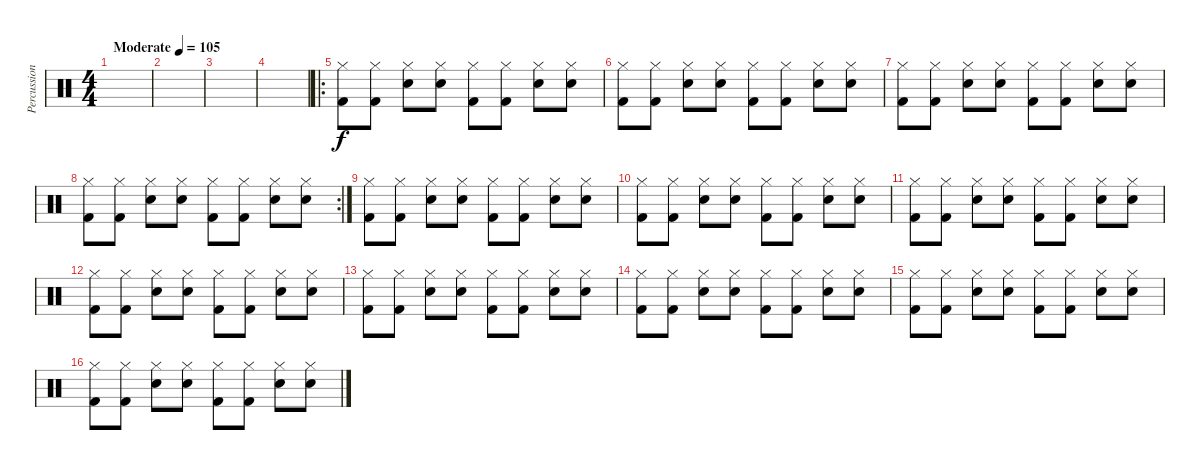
\track ("Percussion" "Percussion") {instrument percussion}
\staff {score}
\articulation defaults
\ts (4 4)
\tempo (105 "Moderate")
\clef neutral
\ks c
|
|
|
|
\ro
("Kick (hit) 2" "Hi-Hat (closed)").8 ("Kick (hit) 2" "Hi-Hat (closed)").8 ("Snare (hit) 2" "Hi-Hat (closed)").8 ("Snare (hit) 2" "Hi-Hat (closed)").8 ("Kick (hit) 2" "Hi-Hat (closed)").8 ("Kick (hit) 2" "Hi-Hat (closed)").8 ("Snare (hit) 2" "Hi-Hat (closed)").8 ("Snare (hit) 2" "Hi-Hat (closed)").8 |
("Kick (hit) 2" "Hi-Hat (closed)").8 ("Kick (hit) 2" "Hi-Hat (closed)").8 ("Snare (hit) 2" "Hi-Hat (closed)").8 ("Snare (hit) 2" "Hi-Hat (closed)").8 ("Kick (hit) 2" "Hi-Hat (closed)").8 ("Kick (hit) 2" "Hi-Hat (closed)").8 ("Snare (hit) 2" "Hi-Hat (closed)").8 ("Snare (hit) 2" "Hi-Hat (closed)").8 |
("Kick (hit) 2" "Hi-Hat (closed)").8 ("Kick (hit) 2" "Hi-Hat (closed)").8 ("Snare (hit) 2" "Hi-Hat (closed)").8 ("Snare (hit) 2" "Hi-Hat (closed)").8 ("Kick (hit) 2" "Hi-Hat (closed)").8 ("Kick (hit) 2" "Hi-Hat (closed)").8 ("Snare (hit) 2" "Hi-Hat (closed)").8 ("Snare (hit) 2" "Hi-Hat (closed)").8 |
\rc 2
("Kick (hit) 2" "Hi-Hat (closed)").8 ("Kick (hit) 2" "Hi-Hat (closed)").8 ("Snare (hit) 2" "Hi-Hat (closed)").8 ("Snare (hit) 2" "Hi-Hat (closed)").8 ("Kick (hit) 2" "Hi-Hat (closed)").8 ("Kick (hit) 2" "Hi-Hat (closed)").8 ("Snare (hit) 2" "Hi-Hat (closed)").8 ("Snare (hit) 2" "Hi-Hat (closed)").8 |
("Kick (hit) 2" "Hi-Hat (closed)").8 ("Kick (hit) 2" "Hi-Hat (closed)").8 ("Snare (hit) 2" "Hi-Hat (closed)").8 ("Snare (hit) 2" "Hi-Hat (closed)").8 ("Kick (hit) 2" "Hi-Hat (closed)").8 ("Kick (hit) 2" "Hi-Hat (closed)").8 ("Snare (hit) 2" "Hi-Hat (closed)").8 ("Snare (hit) 2" "Hi-Hat (closed)").8 |
("Kick (hit) 2" "Hi-Hat (closed)").8 ("Kick (hit) 2" "Hi-Hat (closed)").8 ("Snare (hit) 2" "Hi-Hat (closed)").8 ("Snare (hit) 2" "Hi-Hat (closed)").8 ("Kick (hit) 2" "Hi-Hat (closed)").8 ("Kick (hit) 2" "Hi-Hat (closed)").8 ("Snare (hit) 2" "Hi-Hat (closed)").8 ("Snare (hit) 2" "Hi-Hat (closed)").8 |
("Kick (hit) 2" "Hi-Hat (closed)").8 ("Kick (hit) 2" "Hi-Hat (closed)").8 ("Snare (hit) 2" "Hi-Hat (closed)").8 ("Snare (hit) 2" "Hi-Hat (closed)").8 ("Kick (hit) 2" "Hi-Hat (closed)").8 ("Kick (hit) 2" "Hi-Hat (closed)").8 ("Snare (hit) 2" "Hi-Hat (closed)").8 ("Snare (hit) 2" "Hi-Hat (closed)").8 |
("Kick (hit) 2" "Hi-Hat (closed)").8 ("Kick (hit) 2" "Hi-Hat (closed)").8 ("Snare (hit) 2" "Hi-Hat (closed)").8 ("Snare (hit) 2" "Hi-Hat (closed)").8 ("Kick (hit) 2" "Hi-Hat (closed)").8 ("Kick (hit) 2" "Hi-Hat (closed)").8 ("Snare (hit) 2" "Hi-Hat (closed)").8 ("Snare (hit) 2" "Hi-Hat (closed)").8 |
("Kick (hit) 2" "Hi-Hat (closed)").8 ("Kick (hit) 2" "Hi-Hat (closed)").8 ("Snare (hit) 2" "Hi-Hat (closed)").8 ("Snare (hit) 2" "Hi-Hat (closed)").8 ("Kick (hit) 2" "Hi-Hat (closed)").8 ("Kick (hit) 2" "Hi-Hat (closed)").8 ("Snare (hit) 2" "Hi-Hat (closed)").8 ("Snare (hit) 2" "Hi-Hat (closed)").8 |
("Kick (hit) 2" "Hi-Hat (closed)").8 ("Kick (hit) 2" "Hi-Hat (closed)").8 ("Snare (hit) 2" "Hi-Hat (closed)").8 ("Snare (hit) 2" "Hi-Hat (closed)").8 ("Kick (hit) 2" "Hi-Hat (closed)").8 ("Kick (hit) 2" "Hi-Hat (closed)").8 ("Snare (hit) 2" "Hi-Hat (closed)").8 ("Snare (hit) 2" "Hi-Hat (closed)").8 |
("Kick (hit) 2" "Hi-Hat (closed)").8 ("Kick (hit) 2" "Hi-Hat (closed)").8 ("Snare (hit) 2" "Hi-Hat (closed)").8 ("Snare (hit) 2" "Hi-Hat (closed)").8 ("Kick (hit) 2" "Hi-Hat (closed)").8 ("Kick (hit) 2" "Hi-Hat (closed)").8 ("Snare (hit) 2" "Hi-Hat (closed)").8 ("Snare (hit) 2" "Hi-Hat (closed)").8 |
("Kick (hit) 2" "Hi-Hat (closed)").8 ("Kick (hit) 2" "Hi-Hat (closed)").8 ("Snare (hit) 2" "Hi-Hat (closed)").8 ("Snare (hit) 2" "Hi-Hat (closed)").8 ("Kick (hit) 2" "Hi-Hat (closed)").8 ("Kick (hit) 2" "Hi-Hat (closed)").8 ("Snare (hit) 2" "Hi-Hat (closed)").8 ("Snare (hit) 2" "Hi-Hat (closed)").8
